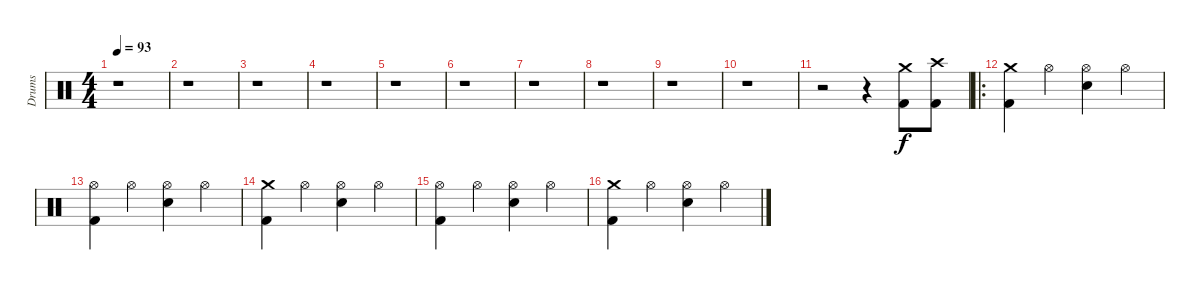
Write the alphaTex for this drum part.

\track ("Drums" "Drums") {instrument percussion}
\staff {score}
\articulation defaults
\ts (4 4)
\tempo 93
\clef neutral
\ks c
r.1{dy f} |
r.1 |
r.1 |
r.1 |
r.1 |
r.1 |
r.1 |
r.1 |
r.1 |
r.1 |
r.2 r.4 ("Crash medium (hit)" "Kick (hit) 2").8 ("Crash high (hit)" "Kick (hit) 2").8 |
\ro
("Crash medium (hit)" "Kick (hit) 2").4 "Hi-Hat (open)".4 ("Hi-Hat (open)" "Electric Snare (hit)").4 "Hi-Hat (open)".4 |
("Hi-Hat (open)" "Kick (hit) 2").4 "Hi-Hat (open)".4 ("Hi-Hat (open)" "Electric Snare (hit)").4 "Hi-Hat (open)".4 |
("Crash medium (hit)" "Kick (hit) 2").4 "Hi-Hat (open)".4 ("Hi-Hat (open)" "Electric Snare (hit)").4 "Hi-Hat (open)".4 |
("Hi-Hat (open)" "Kick (hit) 2").4 "Hi-Hat (open)".4 ("Hi-Hat (open)" "Electric Snare (hit)").4 "Hi-Hat (open)".4 |
("Crash medium (hit)" "Kick (hit) 2").4 "Hi-Hat (open)".4 ("Hi-Hat (open)" "Electric Snare (hit)").4 "Hi-Hat (open)".4
